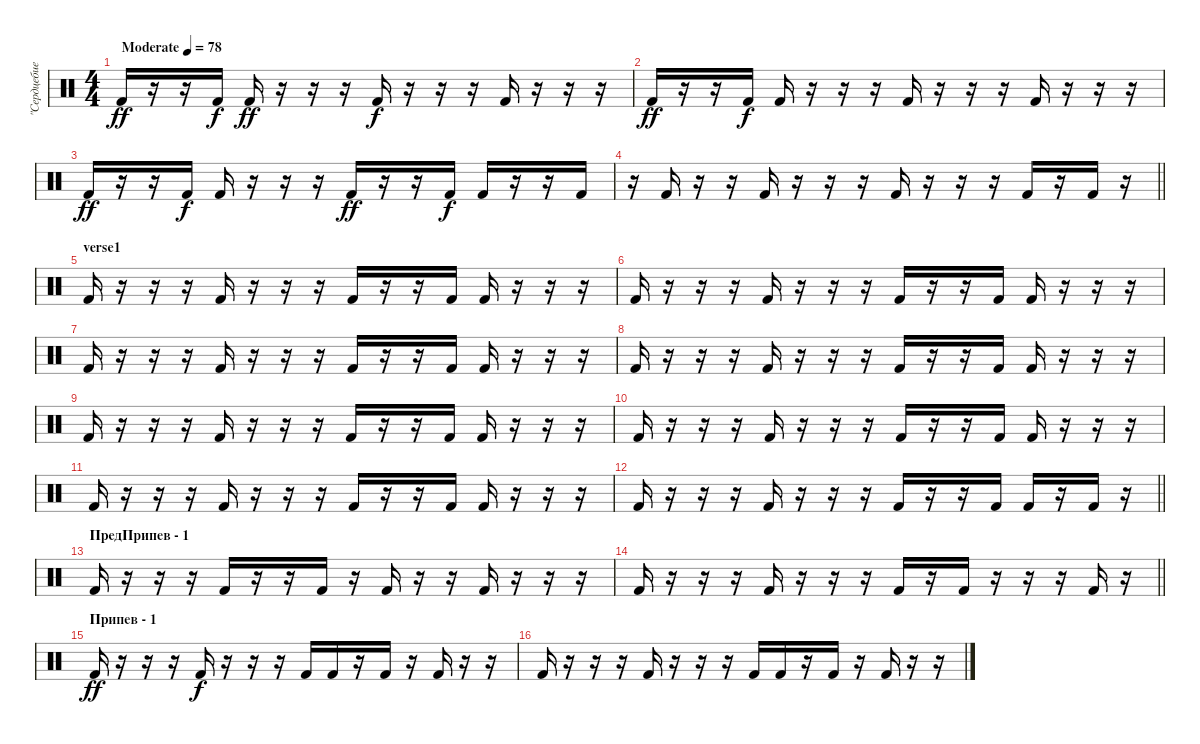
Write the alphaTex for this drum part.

\track ("\"Сердцебиение\" песни" "\"Сердцебие") {instrument percussion}
\staff {score}
\articulation defaults
\ts (4 4)
\tempo (78 "Moderate")
\clef neutral
\ks c "Kick (hit) 2".16{dy ff}
r.16 r.16 "Kick (hit) 2".16{dy f} "Kick (hit) 2".16{dy ff} r.16 r.16 r.16 "Kick (hit) 2".16{dy f} r.16 r.16 r.16 "Kick (hit) 2".16 r.16 r.16 r.16 |
"Kick (hit) 2".16{dy ff} r.16 r.16 "Kick (hit) 2".16{dy f} "Kick (hit) 2".16 r.16 r.16 r.16 "Kick (hit) 2".16 r.16 r.16 r.16 "Kick (hit) 2".16 r.16 r.16 r.16 |
"Kick (hit) 2".16{dy ff} r.16 r.16 "Kick (hit) 2".16{dy f} "Kick (hit) 2".16 r.16 r.16 r.16 "Kick (hit) 2".16{dy ff} r.16 r.16 "Kick (hit) 2".16{dy f} "Kick (hit) 2".16 r.16 r.16 "Kick (hit) 2".16 |
\barLineRight lightlight
r.16 "Kick (hit) 2".16 r.16 r.16 "Kick (hit) 2".16 r.16 r.16 r.16 "Kick (hit) 2".16 r.16 r.16 r.16 "Kick (hit) 2".16 r.16 "Kick (hit) 2".16 r.16 |
\section ("" "verse1")
"Kick (hit) 2".16 r.16 r.16 r.16 "Kick (hit) 2".16 r.16 r.16 r.16 "Kick (hit) 2".16 r.16 r.16 "Kick (hit) 2".16 "Kick (hit) 2".16 r.16 r.16 r.16 |
"Kick (hit) 2".16 r.16 r.16 r.16 "Kick (hit) 2".16 r.16 r.16 r.16 "Kick (hit) 2".16 r.16 r.16 "Kick (hit) 2".16 "Kick (hit) 2".16 r.16 r.16 r.16 |
"Kick (hit) 2".16 r.16 r.16 r.16 "Kick (hit) 2".16 r.16 r.16 r.16 "Kick (hit) 2".16 r.16 r.16 "Kick (hit) 2".16 "Kick (hit) 2".16 r.16 r.16 r.16 |
"Kick (hit) 2".16 r.16 r.16 r.16 "Kick (hit) 2".16 r.16 r.16 r.16 "Kick (hit) 2".16 r.16 r.16 "Kick (hit) 2".16 "Kick (hit) 2".16 r.16 r.16 r.16 |
"Kick (hit) 2".16 r.16 r.16 r.16 "Kick (hit) 2".16 r.16 r.16 r.16 "Kick (hit) 2".16 r.16 r.16 "Kick (hit) 2".16 "Kick (hit) 2".16 r.16 r.16 r.16 |
"Kick (hit) 2".16 r.16 r.16 r.16 "Kick (hit) 2".16 r.16 r.16 r.16 "Kick (hit) 2".16 r.16 r.16 "Kick (hit) 2".16 "Kick (hit) 2".16 r.16 r.16 r.16 |
"Kick (hit) 2".16 r.16 r.16 r.16 "Kick (hit) 2".16 r.16 r.16 r.16 "Kick (hit) 2".16 r.16 r.16 "Kick (hit) 2".16 "Kick (hit) 2".16 r.16 r.16 r.16 |
\barLineRight lightlight "Kick (hit) 2".16
r.16 r.16 r.16 "Kick (hit) 2".16 r.16 r.16 r.16 "Kick (hit) 2".16 r.16 r.16 "Kick (hit) 2".16 "Kick (hit) 2".16 r.16 "Kick (hit) 2".16 r.16 |
\section ("" "ПредПрипев - 1")
"Kick (hit) 2".16 r.16 r.16 r.16 "Kick (hit) 2".16 r.16 r.16 "Kick (hit) 2".16 r.16 "Kick (hit) 2".16 r.16 r.16 "Kick (hit) 2".16 r.16 r.16 r.16 |
\barLineRight lightlight "Kick (hit) 2".16
r.16 r.16 r.16 "Kick (hit) 2".16 r.16 r.16 r.16 "Kick (hit) 2".16 r.16 "Kick (hit) 2".16 r.16 r.16 r.16 "Kick (hit) 2".16 r.16 |
\section ("" "Припев - 1")
"Kick (hit) 2".16{dy ff} r.16 r.16 r.16 "Kick (hit) 2".16{dy f} r.16 r.16 r.16 "Kick (hit) 2".16 "Kick (hit) 2".16 r.16 "Kick (hit) 2".16 r.16 "Kick (hit) 2".16 r.16 r.16 |
"Kick (hit) 2".16 r.16 r.16 r.16 "Kick (hit) 2".16 r.16 r.16 r.16 "Kick (hit) 2".16 "Kick (hit) 2".16 r.16 "Kick (hit) 2".16 r.16 "Kick (hit) 2".16 r.16 r.16
